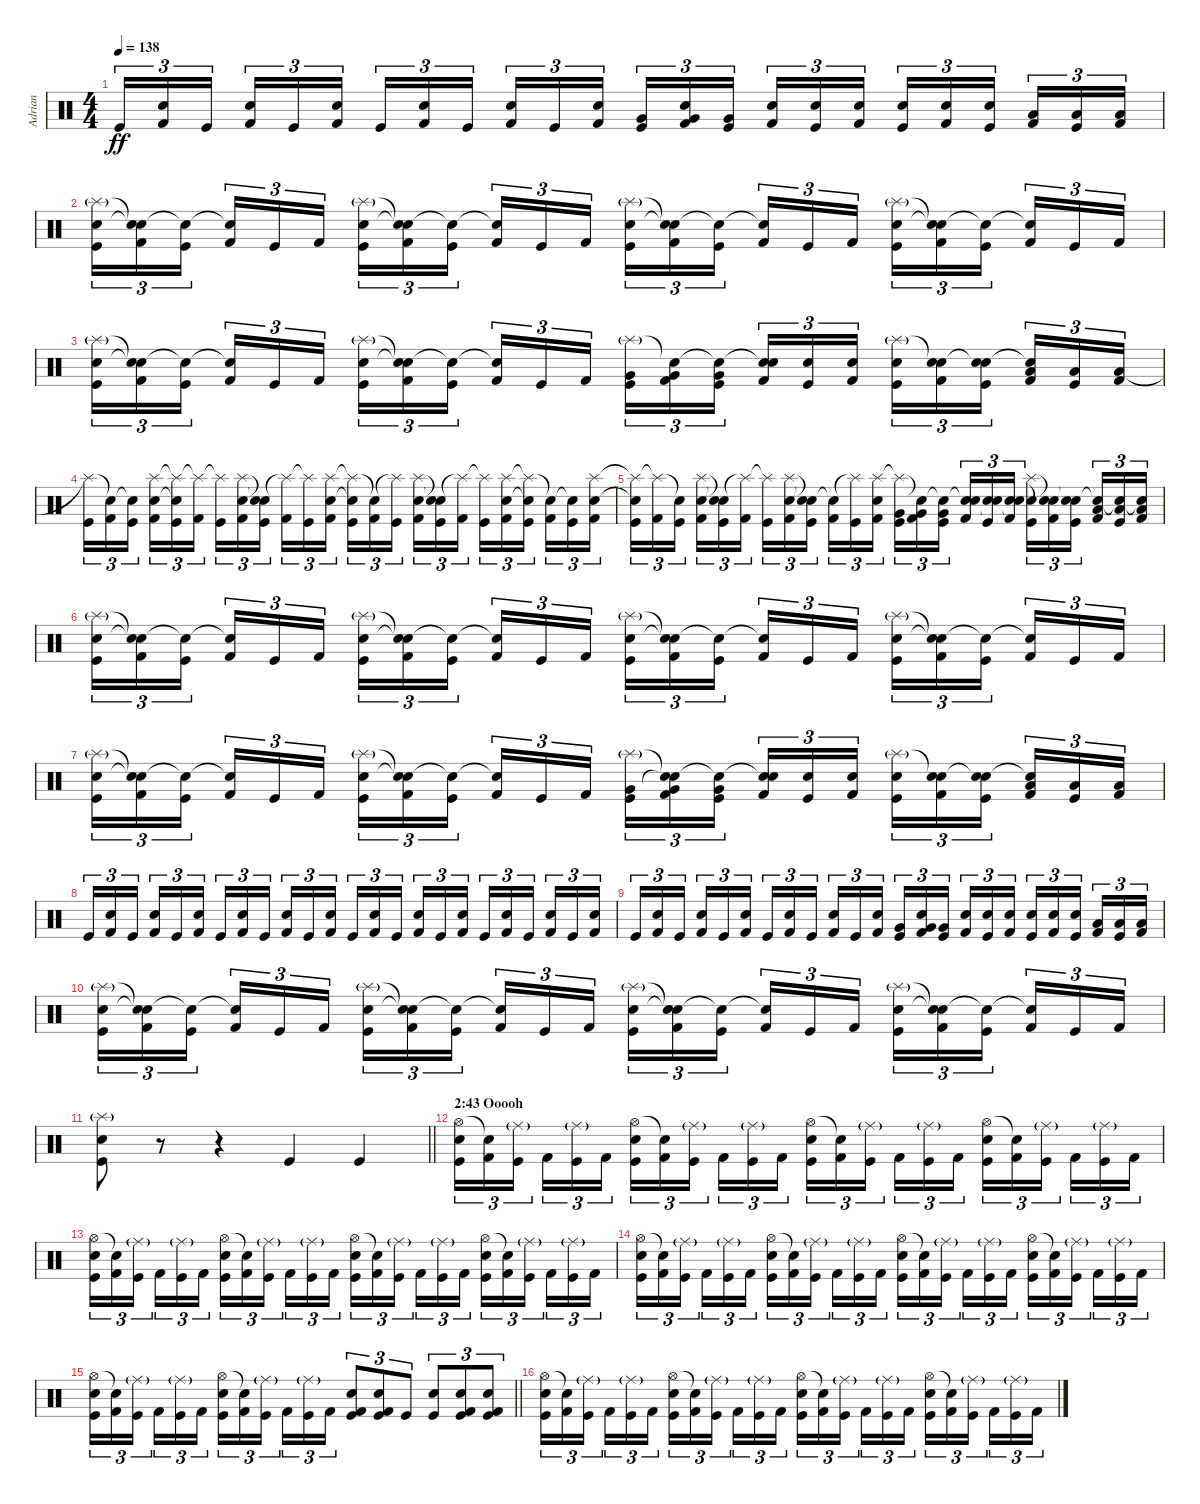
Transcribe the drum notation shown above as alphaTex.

\track ("Adrian" "Adrian") {instrument percussion}
\staff {score}
\articulation defaults
\ts (4 4)
\tempo 138
\clef neutral
\ks c "Kick (hit)".16{tu (3 2) dy ff}
("Electric Snare (hit)" "Kick (hit) 2").16{tu (3 2)} "Kick (hit)".16{tu (3 2) beam splitsecondary} ("Electric Snare (hit)" "Kick (hit) 2").16{tu (3 2)} "Kick (hit)".16{tu (3 2)} ("Electric Snare (hit)" "Kick (hit) 2").16{tu (3 2)} "Kick (hit)".16{tu (3 2)} ("Electric Snare (hit)" "Kick (hit) 2").16{tu (3 2)} "Kick (hit)".16{tu (3 2) beam splitsecondary} ("Electric Snare (hit)" "Kick (hit) 2").16{tu (3 2)} "Kick (hit)".16{tu (3 2)} ("Electric Snare (hit)" "Kick (hit) 2").16{tu (3 2)} ("Very Low Tom (hit)" "Kick (hit)").16{tu (3 2)} ("Electric Snare (hit)" "Very Low Tom (hit)" "Kick (hit) 2").16{tu (3 2)} ("Very Low Tom (hit)" "Kick (hit)").16{tu (3 2) beam splitsecondary} ("Electric Snare (hit)" "Kick (hit) 2").16{tu (3 2)} ("Electric Snare (hit)" "Kick (hit)").16{tu (3 2)} ("Electric Snare (hit)" "Kick (hit) 2").16{tu (3 2)} ("Electric Snare (hit)" "Kick (hit)").16{tu (3 2)} ("Electric Snare (hit)" "Kick (hit) 2").16{tu (3 2)} ("Electric Snare (hit)" "Kick (hit)").16{tu (3 2) beam splitsecondary} ("Low Floor Tom (hit)" "Kick (hit) 2").16{tu (3 2)} ("Low Floor Tom (hit)" "Kick (hit)").16{tu (3 2)} ("Low Floor Tom (hit)" "Kick (hit) 2").16{tu (3 2)} |
("Splash (hit)"{g} "Electric Snare (hit)" "Kick (hit)").16{tu (3 2)} ("Snare (hit)"{t} "Snare (hit)"{t} "Kick (hit) 2").16{tu (3 2)} ("Snare (hit)"{t} "Kick (hit)").16{tu (3 2) beam splitsecondary} ("Snare (hit)"{t} "Kick (hit) 2").16{tu (3 2)} "Kick (hit)".16{tu (3 2)} "Kick (hit) 2".16{tu (3 2)} ("Splash (hit)"{g} "Electric Snare (hit)" "Kick (hit)").16{tu (3 2)} ("Snare (hit)"{t} "Snare (hit)"{t} "Kick (hit) 2").16{tu (3 2)} ("Snare (hit)"{t} "Kick (hit)").16{tu (3 2) beam splitsecondary} ("Snare (hit)"{t} "Kick (hit) 2").16{tu (3 2)} "Kick (hit)".16{tu (3 2)} "Kick (hit) 2".16{tu (3 2)} ("Splash (hit)"{g} "Electric Snare (hit)" "Kick (hit)").16{tu (3 2)} ("Snare (hit)"{t} "Snare (hit)"{t} "Kick (hit) 2").16{tu (3 2)} ("Snare (hit)"{t} "Kick (hit)").16{tu (3 2) beam splitsecondary} ("Snare (hit)"{t} "Kick (hit) 2").16{tu (3 2)} "Kick (hit)".16{tu (3 2)} "Kick (hit) 2".16{tu (3 2)} ("Splash (hit)"{g} "Electric Snare (hit)" "Kick (hit)").16{tu (3 2)} ("Snare (hit)"{t} "Snare (hit)"{t} "Kick (hit) 2").16{tu (3 2)} ("Snare (hit)"{t} "Kick (hit)").16{tu (3 2) beam splitsecondary} ("Snare (hit)"{t} "Kick (hit) 2").16{tu (3 2)} "Kick (hit)".16{tu (3 2)} "Kick (hit) 2".16{tu (3 2)} |
("Splash (hit)"{g} "Electric Snare (hit)" "Kick (hit)").16{tu (3 2)} ("Snare (hit)"{t} "Snare (hit)"{t} "Kick (hit) 2").16{tu (3 2)} ("Snare (hit)"{t} "Kick (hit)").16{tu (3 2) beam splitsecondary} ("Snare (hit)"{t} "Kick (hit) 2").16{tu (3 2)} "Kick (hit)".16{tu (3 2)} "Kick (hit) 2".16{tu (3 2)} ("Splash (hit)"{g} "Electric Snare (hit)" "Kick (hit)").16{tu (3 2)} ("Snare (hit)"{t} "Snare (hit)"{t} "Kick (hit) 2").16{tu (3 2)} ("Snare (hit)"{t} "Kick (hit)").16{tu (3 2) beam splitsecondary} ("Snare (hit)"{t} "Kick (hit) 2").16{tu (3 2)} "Kick (hit)".16{tu (3 2)} "Kick (hit) 2".16{tu (3 2)} ("Splash (hit)"{g} "Very Low Tom (hit)" "Kick (hit)").16{tu (3 2)} ("Snare (hit)"{t} "Very Low Tom (hit)" "Kick (hit) 2").16{tu (3 2)} ("Snare (hit)"{t} "Very Low Tom (hit)" "Kick (hit)").16{tu (3 2) beam splitsecondary} ("Snare (hit)"{t} "Electric Snare (hit)" "Kick (hit) 2").16{tu (3 2)} ("Electric Snare (hit)" "Kick (hit)").16{tu (3 2)} ("Electric Snare (hit)" "Kick (hit) 2").16{tu (3 2)} ("Splash (hit)"{g} "Electric Snare (hit)" "Kick (hit)").16{tu (3 2)} ("Snare (hit)"{t} "Electric Snare (hit)" "Kick (hit) 2").16{tu (3 2)} ("Snare (hit)"{t} "Electric Snare (hit)" "Kick (hit)").16{tu (3 2) beam splitsecondary} ("Snare (hit)"{t} "Low Floor Tom (hit)" "Kick (hit) 2").16{tu (3 2)} ("Low Floor Tom (hit)" "Kick (hit)").16{tu (3 2)} ("Low Floor Tom (hit)" "Kick (hit) 2").16{tu (3 2)} |
("Splash (hit)"{t} "Kick (hit)").16{tu (3 2)} ("Snare (hit)"{t} "Kick (hit) 2").16{tu (3 2)} ("Snare (hit)"{t} "Kick (hit)").16{tu (3 2) beam splitsecondary} ("Splash (hit)" "Electric Snare (hit)" "Kick (hit) 2").16{tu (3 2)} ("Splash (hit)"{t} "Snare (hit) 2"{t} "Kick (hit)").16{tu (3 2)} ("Splash (hit)"{t} "Kick (hit) 2").16{tu (3 2)} ("Splash (hit)"{t} "Kick (hit)").16{tu (3 2)} ("Splash (hit)" "Electric Snare (hit)" "Kick (hit) 2").16{tu (3 2)} ("Snare (hit)"{t} "Snare (hit)"{t} "Kick (hit)").16{tu (3 2) beam splitsecondary} ("Splash (hit)"{t} "Kick (hit) 2").16{tu (3 2)} ("Splash (hit)"{t} "Kick (hit)").16{tu (3 2)} ("Splash (hit)" "Electric Snare (hit)" "Kick (hit) 2").16{tu (3 2)} ("Splash (hit)"{t} "Snare (hit) 2"{t} "Kick (hit)").16{tu (3 2)} ("Snare (hit)"{t} "Kick (hit) 2").16{tu (3 2)} ("Splash (hit)"{t} "Kick (hit)").16{tu (3 2) beam splitsecondary} ("Splash (hit)" "Electric Snare (hit)" "Kick (hit) 2").16{tu (3 2)} ("Snare (hit)"{t} "Snare (hit) 2"{t} "Kick (hit)").16{tu (3 2)} ("Splash (hit)"{t} "Kick (hit) 2").16{tu (3 2)} ("Splash (hit)"{t} "Kick (hit)").16{tu (3 2)} ("Splash (hit)" "Electric Snare (hit)" "Kick (hit) 2").16{tu (3 2)} ("Splash (hit)"{t} "Snare (hit) 2"{t} "Kick (hit)").16{tu (3 2) beam splitsecondary} ("Snare (hit)"{t} "Kick (hit) 2").16{tu (3 2)} ("Snare (hit)"{t} "Kick (hit)").16{tu (3 2)} ("Splash (hit)" "Electric Snare (hit)" "Kick (hit) 2").16{tu (3 2)} |
("Splash (hit)"{t} "Snare (hit) 2"{t} "Kick (hit)").16{tu (3 2)} ("Splash (hit)"{t} "Kick (hit) 2").16{tu (3 2)} ("Snare (hit)"{t} "Kick (hit)").16{tu (3 2) beam splitsecondary} ("Splash (hit)" "Electric Snare (hit)" "Kick (hit) 2").16{tu (3 2)} ("Snare (hit)"{t} "Snare (hit)"{t} "Kick (hit)").16{tu (3 2)} ("Splash (hit)"{t} "Kick (hit) 2").16{tu (3 2)} ("Splash (hit)"{t} "Kick (hit)").16{tu (3 2)} ("Splash (hit)" "Electric Snare (hit)" "Kick (hit) 2").16{tu (3 2)} ("Snare (hit)"{t} "Snare (hit)"{t} "Kick (hit)").16{tu (3 2) beam splitsecondary} ("Snare (hit)"{t} "Kick (hit) 2").16{tu (3 2)} ("Splash (hit)"{t} "Kick (hit)").16{tu (3 2)} ("Splash (hit)" "Electric Snare (hit)" "Kick (hit) 2").16{tu (3 2)} ("Splash (hit)"{t} "Very Low Tom (hit)" "Kick (hit)").16{tu (3 2)} ("Snare (hit)"{t} "Very Low Tom (hit)" "Kick (hit) 2").16{tu (3 2)} ("Snare (hit)"{t} "Very Low Tom (hit)" "Kick (hit)").16{tu (3 2) beam splitsecondary} ("Snare (hit)"{t} "Electric Snare (hit)" "Kick (hit) 2").16{tu (3 2)} ("Snare (hit)"{t} "Electric Snare (hit)" "Kick (hit)").16{tu (3 2)} ("Snare (hit)"{t} "Electric Snare (hit)" "Kick (hit) 2").16{tu (3 2)} ("Splash (hit)"{t} "Electric Snare (hit)" "Kick (hit)").16{tu (3 2)} ("Snare (hit)"{t} "Electric Snare (hit)" "Kick (hit) 2").16{tu (3 2)} ("Snare (hit)"{t} "Electric Snare (hit)" "Kick (hit)").16{tu (3 2) beam splitsecondary} ("Snare (hit)"{t} "Low Floor Tom (hit)" "Kick (hit) 2").16{tu (3 2)} ("Snare (hit)"{t} "Low Floor Tom (hit)" "Kick (hit)").16{tu (3 2)} ("Snare (hit)"{t} "Low Floor Tom (hit)" "Kick (hit) 2").16{tu (3 2)} |
("Splash (hit)"{g} "Electric Snare (hit)" "Kick (hit)").16{tu (3 2)} ("Snare (hit)"{t} "Snare (hit)"{t} "Kick (hit) 2").16{tu (3 2)} ("Snare (hit)"{t} "Kick (hit)").16{tu (3 2) beam splitsecondary} ("Snare (hit)"{t} "Kick (hit) 2").16{tu (3 2)} "Kick (hit)".16{tu (3 2)} "Kick (hit) 2".16{tu (3 2)} ("Splash (hit)"{g} "Electric Snare (hit)" "Kick (hit)").16{tu (3 2)} ("Snare (hit)"{t} "Snare (hit)"{t} "Kick (hit) 2").16{tu (3 2)} ("Snare (hit)"{t} "Kick (hit)").16{tu (3 2) beam splitsecondary} ("Snare (hit)"{t} "Kick (hit) 2").16{tu (3 2)} "Kick (hit)".16{tu (3 2)} "Kick (hit) 2".16{tu (3 2)} ("Splash (hit)"{g} "Electric Snare (hit)" "Kick (hit)").16{tu (3 2)} ("Snare (hit)"{t} "Snare (hit)"{t} "Kick (hit) 2").16{tu (3 2)} ("Snare (hit)"{t} "Kick (hit)").16{tu (3 2) beam splitsecondary} ("Snare (hit)"{t} "Kick (hit) 2").16{tu (3 2)} "Kick (hit)".16{tu (3 2)} "Kick (hit) 2".16{tu (3 2)} ("Splash (hit)"{g} "Electric Snare (hit)" "Kick (hit)").16{tu (3 2)} ("Snare (hit)"{t} "Snare (hit)"{t} "Kick (hit) 2").16{tu (3 2)} ("Snare (hit)"{t} "Kick (hit)").16{tu (3 2) beam splitsecondary} ("Snare (hit)"{t} "Kick (hit) 2").16{tu (3 2)} "Kick (hit)".16{tu (3 2)} "Kick (hit) 2".16{tu (3 2)} |
("Splash (hit)"{g} "Electric Snare (hit)" "Kick (hit)").16{tu (3 2)} ("Snare (hit)"{t} "Snare (hit)"{t} "Kick (hit) 2").16{tu (3 2)} ("Snare (hit)"{t} "Kick (hit)").16{tu (3 2) beam splitsecondary} ("Snare (hit)"{t} "Kick (hit) 2").16{tu (3 2)} "Kick (hit)".16{tu (3 2)} "Kick (hit) 2".16{tu (3 2)} ("Splash (hit)"{g} "Electric Snare (hit)" "Kick (hit)").16{tu (3 2)} ("Snare (hit)"{t} "Snare (hit)"{t} "Kick (hit) 2").16{tu (3 2)} ("Snare (hit)"{t} "Kick (hit)").16{tu (3 2) beam splitsecondary} ("Snare (hit)"{t} "Kick (hit) 2").16{tu (3 2)} "Kick (hit)".16{tu (3 2)} "Kick (hit) 2".16{tu (3 2)} ("Splash (hit)"{g} "Very Low Tom (hit)" "Kick (hit)").16{tu (3 2)} ("Snare (hit)"{t} "Snare (hit)"{t} "Very Low Tom (hit)" "Kick (hit) 2").16{tu (3 2)} ("Snare (hit)"{t} "Very Low Tom (hit)" "Kick (hit)").16{tu (3 2) beam splitsecondary} ("Snare (hit)"{t} "Electric Snare (hit)" "Kick (hit) 2").16{tu (3 2)} ("Electric Snare (hit)" "Kick (hit)").16{tu (3 2)} ("Electric Snare (hit)" "Kick (hit) 2").16{tu (3 2)} ("Splash (hit)"{g} "Electric Snare (hit)" "Kick (hit)").16{tu (3 2)} ("Snare (hit)"{t} "Electric Snare (hit)" "Kick (hit) 2").16{tu (3 2)} ("Snare (hit)"{t} "Electric Snare (hit)" "Kick (hit)").16{tu (3 2) beam splitsecondary} ("Snare (hit)"{t} "Low Floor Tom (hit)" "Kick (hit) 2").16{tu (3 2)} ("Low Floor Tom (hit)" "Kick (hit)").16{tu (3 2)} ("Low Floor Tom (hit)" "Kick (hit) 2").16{tu (3 2)} |
"Kick (hit)".16{tu (3 2)} ("Electric Snare (hit)" "Kick (hit) 2").16{tu (3 2)} "Kick (hit)".16{tu (3 2) beam splitsecondary} ("Electric Snare (hit)" "Kick (hit) 2").16{tu (3 2)} "Kick (hit)".16{tu (3 2)} ("Electric Snare (hit)" "Kick (hit) 2").16{tu (3 2)} "Kick (hit)".16{tu (3 2)} ("Electric Snare (hit)" "Kick (hit) 2").16{tu (3 2)} "Kick (hit)".16{tu (3 2) beam splitsecondary} ("Electric Snare (hit)" "Kick (hit) 2").16{tu (3 2)} "Kick (hit)".16{tu (3 2)} ("Electric Snare (hit)" "Kick (hit) 2").16{tu (3 2)} "Kick (hit)".16{tu (3 2)} ("Electric Snare (hit)" "Kick (hit) 2").16{tu (3 2)} "Kick (hit)".16{tu (3 2) beam splitsecondary} ("Electric Snare (hit)" "Kick (hit) 2").16{tu (3 2)} "Kick (hit)".16{tu (3 2)} ("Electric Snare (hit)" "Kick (hit) 2").16{tu (3 2)} "Kick (hit)".16{tu (3 2)} ("Electric Snare (hit)" "Kick (hit) 2").16{tu (3 2)} "Kick (hit)".16{tu (3 2) beam splitsecondary} ("Electric Snare (hit)" "Kick (hit) 2").16{tu (3 2)} "Kick (hit)".16{tu (3 2)} ("Electric Snare (hit)" "Kick (hit) 2").16{tu (3 2)} |
"Kick (hit)".16{tu (3 2)} ("Electric Snare (hit)" "Kick (hit) 2").16{tu (3 2)} "Kick (hit)".16{tu (3 2) beam splitsecondary} ("Electric Snare (hit)" "Kick (hit) 2").16{tu (3 2)} "Kick (hit)".16{tu (3 2)} ("Electric Snare (hit)" "Kick (hit) 2").16{tu (3 2)} "Kick (hit)".16{tu (3 2)} ("Electric Snare (hit)" "Kick (hit) 2").16{tu (3 2)} "Kick (hit)".16{tu (3 2) beam splitsecondary} ("Electric Snare (hit)" "Kick (hit) 2").16{tu (3 2)} "Kick (hit)".16{tu (3 2)} ("Electric Snare (hit)" "Kick (hit) 2").16{tu (3 2)} ("Very Low Tom (hit)" "Kick (hit)").16{tu (3 2)} ("Electric Snare (hit)" "Very Low Tom (hit)" "Kick (hit) 2").16{tu (3 2)} ("Very Low Tom (hit)" "Kick (hit)").16{tu (3 2) beam splitsecondary} ("Electric Snare (hit)" "Kick (hit) 2").16{tu (3 2)} ("Electric Snare (hit)" "Kick (hit)").16{tu (3 2)} ("Electric Snare (hit)" "Kick (hit) 2").16{tu (3 2)} ("Electric Snare (hit)" "Kick (hit)").16{tu (3 2)} ("Electric Snare (hit)" "Kick (hit) 2").16{tu (3 2)} ("Electric Snare (hit)" "Kick (hit)").16{tu (3 2) beam splitsecondary} ("Low Floor Tom (hit)" "Kick (hit) 2").16{tu (3 2)} ("Low Floor Tom (hit)" "Kick (hit)").16{tu (3 2)} ("Low Floor Tom (hit)" "Kick (hit) 2").16{tu (3 2)} |
("Splash (hit)"{g} "Electric Snare (hit)" "Kick (hit)").16{tu (3 2)} ("Snare (hit)"{t} "Snare (hit)"{t} "Kick (hit) 2").16{tu (3 2)} ("Snare (hit)"{t} "Kick (hit)").16{tu (3 2) beam splitsecondary} ("Snare (hit)"{t} "Kick (hit) 2").16{tu (3 2)} "Kick (hit)".16{tu (3 2)} "Kick (hit) 2".16{tu (3 2)} ("Splash (hit)"{g} "Electric Snare (hit)" "Kick (hit)").16{tu (3 2)} ("Snare (hit)"{t} "Snare (hit)"{t} "Kick (hit) 2").16{tu (3 2)} ("Snare (hit)"{t} "Kick (hit)").16{tu (3 2) beam splitsecondary} ("Snare (hit)"{t} "Kick (hit) 2").16{tu (3 2)} "Kick (hit)".16{tu (3 2)} "Kick (hit) 2".16{tu (3 2)} ("Splash (hit)"{g} "Electric Snare (hit)" "Kick (hit)").16{tu (3 2)} ("Snare (hit)"{t} "Snare (hit)"{t} "Kick (hit) 2").16{tu (3 2)} ("Snare (hit)"{t} "Kick (hit)").16{tu (3 2) beam splitsecondary} ("Snare (hit)"{t} "Kick (hit) 2").16{tu (3 2)} "Kick (hit)".16{tu (3 2)} "Kick (hit) 2".16{tu (3 2)} ("Splash (hit)"{g} "Electric Snare (hit)" "Kick (hit)").16{tu (3 2)} ("Snare (hit)"{t} "Snare (hit)"{t} "Kick (hit) 2").16{tu (3 2)} ("Snare (hit)"{t} "Kick (hit)").16{tu (3 2) beam splitsecondary} ("Snare (hit)"{t} "Kick (hit) 2").16{tu (3 2)} "Kick (hit)".16{tu (3 2)} "Kick (hit) 2".16{tu (3 2)} |
\barLineRight lightlight
("Splash (hit)"{g} "Electric Snare (hit)" "Kick (hit)").8 r.8 r.4 "Kick (hit)".4 "Kick (hit)".4 |
\section ("" "2:43 Ooooh")
("Hi-Hat (open)" "Electric Snare (hit)" "Kick (hit)").16{tu (3 2)} ("Snare (hit)"{t} "Kick (hit) 2").16{tu (3 2)} ("Ride (middle)"{g} "Kick (hit)").16{tu (3 2) beam splitsecondary} "Kick (hit) 2".16{tu (3 2)} ("Ride (middle)"{g} "Kick (hit)").16{tu (3 2)} "Kick (hit) 2".16{tu (3 2)} ("Hi-Hat (open)" "Electric Snare (hit)" "Kick (hit)").16{tu (3 2)} ("Snare (hit)"{t} "Kick (hit) 2").16{tu (3 2)} ("Ride (middle)"{g} "Kick (hit)").16{tu (3 2) beam splitsecondary} "Kick (hit) 2".16{tu (3 2)} ("Ride (middle)"{g} "Kick (hit)").16{tu (3 2)} "Kick (hit) 2".16{tu (3 2)} ("Hi-Hat (open)" "Electric Snare (hit)" "Kick (hit)").16{tu (3 2)} ("Snare (hit)"{t} "Kick (hit) 2").16{tu (3 2)} ("Ride (middle)"{g} "Kick (hit)").16{tu (3 2) beam splitsecondary} "Kick (hit) 2".16{tu (3 2)} ("Ride (middle)"{g} "Kick (hit)").16{tu (3 2)} "Kick (hit) 2".16{tu (3 2)} ("Hi-Hat (open)" "Electric Snare (hit)" "Kick (hit)").16{tu (3 2)} ("Snare (hit)"{t} "Kick (hit) 2").16{tu (3 2)} ("Ride (middle)"{g} "Kick (hit)").16{tu (3 2) beam splitsecondary} "Kick (hit) 2".16{tu (3 2)} ("Ride (middle)"{g} "Kick (hit)").16{tu (3 2)} "Kick (hit) 2".16{tu (3 2)} |
("Hi-Hat (open)" "Electric Snare (hit)" "Kick (hit)").16{tu (3 2)} ("Snare (hit)"{t} "Kick (hit) 2").16{tu (3 2)} ("Ride (middle)"{g} "Kick (hit)").16{tu (3 2) beam splitsecondary} "Kick (hit) 2".16{tu (3 2)} ("Ride (middle)"{g} "Kick (hit)").16{tu (3 2)} "Kick (hit) 2".16{tu (3 2)} ("Hi-Hat (open)" "Electric Snare (hit)" "Kick (hit)").16{tu (3 2)} ("Snare (hit)"{t} "Kick (hit) 2").16{tu (3 2)} ("Ride (middle)"{g} "Kick (hit)").16{tu (3 2) beam splitsecondary} "Kick (hit) 2".16{tu (3 2)} ("Ride (middle)"{g} "Kick (hit)").16{tu (3 2)} "Kick (hit) 2".16{tu (3 2)} ("Hi-Hat (open)" "Electric Snare (hit)" "Kick (hit)").16{tu (3 2)} ("Snare (hit)"{t} "Kick (hit) 2").16{tu (3 2)} ("Ride (middle)"{g} "Kick (hit)").16{tu (3 2) beam splitsecondary} "Kick (hit) 2".16{tu (3 2)} ("Ride (middle)"{g} "Kick (hit)").16{tu (3 2)} "Kick (hit) 2".16{tu (3 2)} ("Hi-Hat (open)" "Electric Snare (hit)" "Kick (hit)").16{tu (3 2)} ("Snare (hit)"{t} "Kick (hit) 2").16{tu (3 2)} ("Ride (middle)"{g} "Kick (hit)").16{tu (3 2) beam splitsecondary} "Kick (hit) 2".16{tu (3 2)} ("Ride (middle)"{g} "Kick (hit)").16{tu (3 2)} "Kick (hit) 2".16{tu (3 2)} |
("Hi-Hat (open)" "Electric Snare (hit)" "Kick (hit)").16{tu (3 2)} ("Snare (hit)"{t} "Kick (hit) 2").16{tu (3 2)} ("Ride (middle)"{g} "Kick (hit)").16{tu (3 2) beam splitsecondary} "Kick (hit) 2".16{tu (3 2)} ("Ride (middle)"{g} "Kick (hit)").16{tu (3 2)} "Kick (hit) 2".16{tu (3 2)} ("Hi-Hat (open)" "Electric Snare (hit)" "Kick (hit)").16{tu (3 2)} ("Snare (hit)"{t} "Kick (hit) 2").16{tu (3 2)} ("Ride (middle)"{g} "Kick (hit)").16{tu (3 2) beam splitsecondary} "Kick (hit) 2".16{tu (3 2)} ("Ride (middle)"{g} "Kick (hit)").16{tu (3 2)} "Kick (hit) 2".16{tu (3 2)} ("Hi-Hat (open)" "Electric Snare (hit)" "Kick (hit)").16{tu (3 2)} ("Snare (hit)"{t} "Kick (hit) 2").16{tu (3 2)} ("Ride (middle)"{g} "Kick (hit)").16{tu (3 2) beam splitsecondary} "Kick (hit) 2".16{tu (3 2)} ("Ride (middle)"{g} "Kick (hit)").16{tu (3 2)} "Kick (hit) 2".16{tu (3 2)} ("Hi-Hat (open)" "Electric Snare (hit)" "Kick (hit)").16{tu (3 2)} ("Snare (hit)"{t} "Kick (hit) 2").16{tu (3 2)} ("Ride (middle)"{g} "Kick (hit)").16{tu (3 2) beam splitsecondary} "Kick (hit) 2".16{tu (3 2)} ("Ride (middle)"{g} "Kick (hit)").16{tu (3 2)} "Kick (hit) 2".16{tu (3 2)} |
\barLineRight lightlight
("Hi-Hat (open)" "Electric Snare (hit)" "Kick (hit)").16{tu (3 2)} ("Snare (hit)"{t} "Kick (hit) 2").16{tu (3 2)} ("Ride (middle)"{g} "Kick (hit)").16{tu (3 2) beam splitsecondary} "Kick (hit) 2".16{tu (3 2)} ("Ride (middle)"{g} "Kick (hit)").16{tu (3 2)} "Kick (hit) 2".16{tu (3 2)} ("Hi-Hat (open)" "Electric Snare (hit)" "Kick (hit)").16{tu (3 2)} ("Snare (hit)"{t} "Kick (hit) 2").16{tu (3 2)} ("Ride (middle)"{g} "Kick (hit)").16{tu (3 2) beam splitsecondary} "Kick (hit) 2".16{tu (3 2)} ("Ride (middle)"{g} "Kick (hit)").16{tu (3 2)} "Kick (hit) 2".16{tu (3 2)} ("Electric Snare (hit)" "Kick (hit) 2" "Kick (hit)").8{tu (3 2)} ("Electric Snare (hit)" "Kick (hit) 2" "Kick (hit)").8{tu (3 2)} "Kick (hit)".8{tu (3 2)} ("Electric Snare (hit)" "Kick (hit)").8{tu (3 2)} ("Electric Snare (hit)" "Kick (hit) 2" "Kick (hit)").8{tu (3 2)} ("Electric Snare (hit)" "Kick (hit) 2" "Kick (hit)").8{tu (3 2)} |
("Hi-Hat (open)" "Electric Snare (hit)" "Kick (hit)").16{tu (3 2)} ("Snare (hit)"{t} "Kick (hit) 2").16{tu (3 2)} ("Ride (middle)"{g} "Kick (hit)").16{tu (3 2) beam splitsecondary} "Kick (hit) 2".16{tu (3 2)} ("Ride (middle)"{g} "Kick (hit)").16{tu (3 2)} "Kick (hit) 2".16{tu (3 2)} ("Hi-Hat (open)" "Electric Snare (hit)" "Kick (hit)").16{tu (3 2)} ("Snare (hit)"{t} "Kick (hit) 2").16{tu (3 2)} ("Ride (middle)"{g} "Kick (hit)").16{tu (3 2) beam splitsecondary} "Kick (hit) 2".16{tu (3 2)} ("Ride (middle)"{g} "Kick (hit)").16{tu (3 2)} "Kick (hit) 2".16{tu (3 2)} ("Hi-Hat (open)" "Electric Snare (hit)" "Kick (hit)").16{tu (3 2)} ("Snare (hit)"{t} "Kick (hit) 2").16{tu (3 2)} ("Ride (middle)"{g} "Kick (hit)").16{tu (3 2) beam splitsecondary} "Kick (hit) 2".16{tu (3 2)} ("Ride (middle)"{g} "Kick (hit)").16{tu (3 2)} "Kick (hit) 2".16{tu (3 2)} ("Hi-Hat (open)" "Electric Snare (hit)" "Kick (hit)").16{tu (3 2)} ("Snare (hit)"{t} "Kick (hit) 2").16{tu (3 2)} ("Ride (middle)"{g} "Kick (hit)").16{tu (3 2) beam splitsecondary} "Kick (hit) 2".16{tu (3 2)} ("Ride (middle)"{g} "Kick (hit)").16{tu (3 2)} "Kick (hit) 2".16{tu (3 2)}
